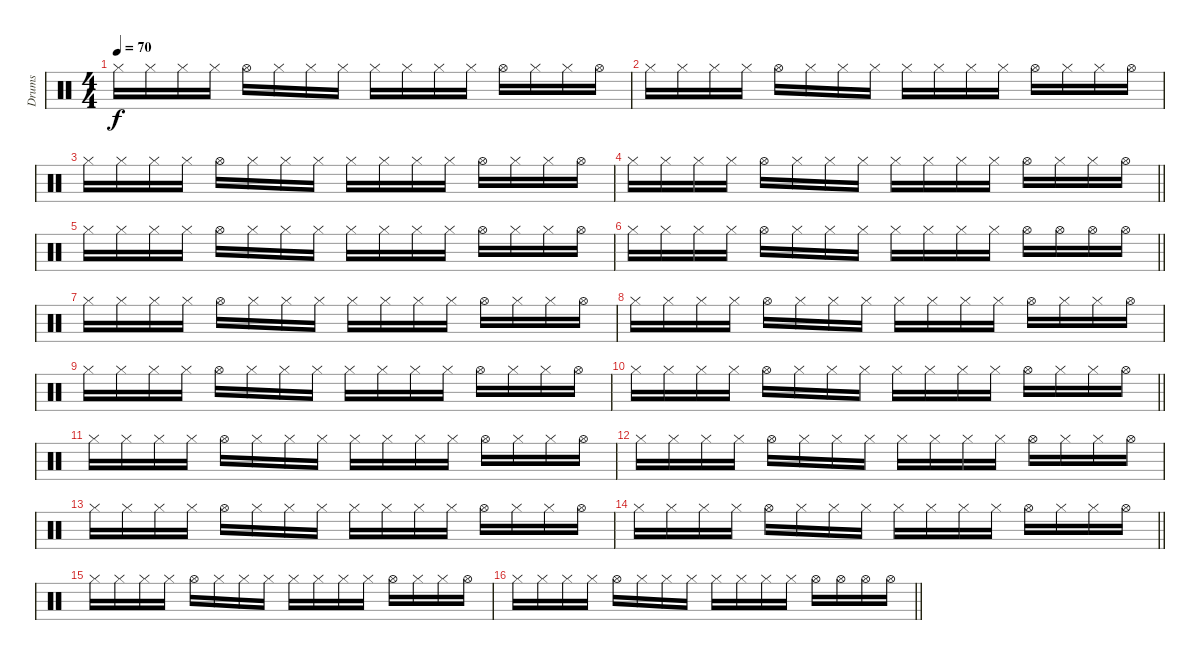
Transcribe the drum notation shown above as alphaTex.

\track ("Drums" "Drums") {instrument percussion}
\staff {score}
\articulation defaults
\ts (4 4)
\section ("" "")
\tempo 70
\clef neutral
\ks c "Hi-Hat (closed)".16{dy f} "Hi-Hat (closed)".16 "Hi-Hat (closed)".16 "Hi-Hat (closed)".16 "Hi-Hat (open)".16 "Hi-Hat (closed)".16 "Hi-Hat (closed)".16 "Hi-Hat (closed)".16 "Hi-Hat (closed)".16 "Hi-Hat (closed)".16 "Hi-Hat (closed)".16 "Hi-Hat (closed)".16 "Hi-Hat (open)".16 "Hi-Hat (closed)".16 "Hi-Hat (closed)".16 "Hi-Hat (open)".16
|
"Hi-Hat (closed)".16 "Hi-Hat (closed)".16 "Hi-Hat (closed)".16 "Hi-Hat (closed)".16 "Hi-Hat (open)".16 "Hi-Hat (closed)".16 "Hi-Hat (closed)".16 "Hi-Hat (closed)".16 "Hi-Hat (closed)".16 "Hi-Hat (closed)".16 "Hi-Hat (closed)".16 "Hi-Hat (closed)".16 "Hi-Hat (open)".16 "Hi-Hat (closed)".16 "Hi-Hat (closed)".16 "Hi-Hat (open)".16 |
"Hi-Hat (closed)".16 "Hi-Hat (closed)".16 "Hi-Hat (closed)".16 "Hi-Hat (closed)".16 "Hi-Hat (open)".16 "Hi-Hat (closed)".16 "Hi-Hat (closed)".16 "Hi-Hat (closed)".16 "Hi-Hat (closed)".16 "Hi-Hat (closed)".16 "Hi-Hat (closed)".16 "Hi-Hat (closed)".16 "Hi-Hat (open)".16 "Hi-Hat (closed)".16 "Hi-Hat (closed)".16 "Hi-Hat (open)".16 |
\barLineRight lightlight "Hi-Hat (closed)".16 "Hi-Hat (closed)".16 "Hi-Hat (closed)".16 "Hi-Hat (closed)".16 "Hi-Hat (open)".16 "Hi-Hat (closed)".16 "Hi-Hat (closed)".16 "Hi-Hat (closed)".16 "Hi-Hat (closed)".16 "Hi-Hat (closed)".16 "Hi-Hat (closed)".16 "Hi-Hat (closed)".16 "Hi-Hat (open)".16 "Hi-Hat (closed)".16 "Hi-Hat (closed)".16 "Hi-Hat (open)".16
|
"Hi-Hat (closed)".16 "Hi-Hat (closed)".16 "Hi-Hat (closed)".16 "Hi-Hat (closed)".16 "Hi-Hat (open)".16 "Hi-Hat (closed)".16 "Hi-Hat (closed)".16 "Hi-Hat (closed)".16 "Hi-Hat (closed)".16 "Hi-Hat (closed)".16 "Hi-Hat (closed)".16 "Hi-Hat (closed)".16 "Hi-Hat (open)".16 "Hi-Hat (closed)".16 "Hi-Hat (closed)".16 "Hi-Hat (open)".16 |
\barLineRight lightlight "Hi-Hat (closed)".16 "Hi-Hat (closed)".16 "Hi-Hat (closed)".16 "Hi-Hat (closed)".16 "Hi-Hat (open)".16 "Hi-Hat (closed)".16 "Hi-Hat (closed)".16 "Hi-Hat (closed)".16 "Hi-Hat (closed)".16 "Hi-Hat (closed)".16 "Hi-Hat (closed)".16 "Hi-Hat (closed)".16 "Hi-Hat (open)".16 "Hi-Hat (open)".16 "Hi-Hat (open)".16 "Hi-Hat (open)".16
|
\section ("" "")
"Hi-Hat (closed)".16 "Hi-Hat (closed)".16 "Hi-Hat (closed)".16 "Hi-Hat (closed)".16 "Hi-Hat (open)".16 "Hi-Hat (closed)".16 "Hi-Hat (closed)".16 "Hi-Hat (closed)".16 "Hi-Hat (closed)".16 "Hi-Hat (closed)".16 "Hi-Hat (closed)".16 "Hi-Hat (closed)".16 "Hi-Hat (open)".16 "Hi-Hat (closed)".16 "Hi-Hat (closed)".16 "Hi-Hat (open)".16 |
"Hi-Hat (closed)".16 "Hi-Hat (closed)".16 "Hi-Hat (closed)".16 "Hi-Hat (closed)".16 "Hi-Hat (open)".16 "Hi-Hat (closed)".16 "Hi-Hat (closed)".16 "Hi-Hat (closed)".16 "Hi-Hat (closed)".16 "Hi-Hat (closed)".16 "Hi-Hat (closed)".16 "Hi-Hat (closed)".16 "Hi-Hat (open)".16 "Hi-Hat (closed)".16 "Hi-Hat (closed)".16 "Hi-Hat (open)".16 |
"Hi-Hat (closed)".16 "Hi-Hat (closed)".16 "Hi-Hat (closed)".16 "Hi-Hat (closed)".16 "Hi-Hat (open)".16 "Hi-Hat (closed)".16 "Hi-Hat (closed)".16 "Hi-Hat (closed)".16 "Hi-Hat (closed)".16 "Hi-Hat (closed)".16 "Hi-Hat (closed)".16 "Hi-Hat (closed)".16 "Hi-Hat (open)".16 "Hi-Hat (closed)".16 "Hi-Hat (closed)".16 "Hi-Hat (open)".16 |
\barLineRight lightlight "Hi-Hat (closed)".16 "Hi-Hat (closed)".16 "Hi-Hat (closed)".16 "Hi-Hat (closed)".16 "Hi-Hat (open)".16 "Hi-Hat (closed)".16 "Hi-Hat (closed)".16 "Hi-Hat (closed)".16 "Hi-Hat (closed)".16 "Hi-Hat (closed)".16 "Hi-Hat (closed)".16 "Hi-Hat (closed)".16 "Hi-Hat (open)".16 "Hi-Hat (closed)".16 "Hi-Hat (closed)".16 "Hi-Hat (open)".16
|
"Hi-Hat (closed)".16 "Hi-Hat (closed)".16 "Hi-Hat (closed)".16 "Hi-Hat (closed)".16 "Hi-Hat (open)".16 "Hi-Hat (closed)".16 "Hi-Hat (closed)".16 "Hi-Hat (closed)".16 "Hi-Hat (closed)".16 "Hi-Hat (closed)".16 "Hi-Hat (closed)".16 "Hi-Hat (closed)".16 "Hi-Hat (open)".16 "Hi-Hat (closed)".16 "Hi-Hat (closed)".16 "Hi-Hat (open)".16 |
"Hi-Hat (closed)".16 "Hi-Hat (closed)".16 "Hi-Hat (closed)".16 "Hi-Hat (closed)".16 "Hi-Hat (open)".16 "Hi-Hat (closed)".16 "Hi-Hat (closed)".16 "Hi-Hat (closed)".16 "Hi-Hat (closed)".16 "Hi-Hat (closed)".16 "Hi-Hat (closed)".16 "Hi-Hat (closed)".16 "Hi-Hat (open)".16 "Hi-Hat (closed)".16 "Hi-Hat (closed)".16 "Hi-Hat (open)".16 |
"Hi-Hat (closed)".16 "Hi-Hat (closed)".16 "Hi-Hat (closed)".16 "Hi-Hat (closed)".16 "Hi-Hat (open)".16 "Hi-Hat (closed)".16 "Hi-Hat (closed)".16 "Hi-Hat (closed)".16 "Hi-Hat (closed)".16 "Hi-Hat (closed)".16 "Hi-Hat (closed)".16 "Hi-Hat (closed)".16 "Hi-Hat (open)".16 "Hi-Hat (closed)".16 "Hi-Hat (closed)".16 "Hi-Hat (open)".16 |
\barLineRight lightlight "Hi-Hat (closed)".16 "Hi-Hat (closed)".16 "Hi-Hat (closed)".16 "Hi-Hat (closed)".16 "Hi-Hat (open)".16 "Hi-Hat (closed)".16 "Hi-Hat (closed)".16 "Hi-Hat (closed)".16 "Hi-Hat (closed)".16 "Hi-Hat (closed)".16 "Hi-Hat (closed)".16 "Hi-Hat (closed)".16 "Hi-Hat (open)".16 "Hi-Hat (closed)".16 "Hi-Hat (closed)".16 "Hi-Hat (open)".16
|
\section ("" "")
"Hi-Hat (closed)".16 "Hi-Hat (closed)".16 "Hi-Hat (closed)".16 "Hi-Hat (closed)".16 "Hi-Hat (open)".16 "Hi-Hat (closed)".16 "Hi-Hat (closed)".16 "Hi-Hat (closed)".16 "Hi-Hat (closed)".16 "Hi-Hat (closed)".16 "Hi-Hat (closed)".16 "Hi-Hat (closed)".16 "Hi-Hat (open)".16 "Hi-Hat (closed)".16 "Hi-Hat (closed)".16 "Hi-Hat (open)".16 |
\barLineRight lightlight "Hi-Hat (closed)".16 "Hi-Hat (closed)".16 "Hi-Hat (closed)".16 "Hi-Hat (closed)".16 "Hi-Hat (open)".16 "Hi-Hat (closed)".16 "Hi-Hat (closed)".16 "Hi-Hat (closed)".16 "Hi-Hat (closed)".16 "Hi-Hat (closed)".16 "Hi-Hat (closed)".16 "Hi-Hat (closed)".16 "Hi-Hat (open)".16 "Hi-Hat (open)".16 "Hi-Hat (open)".16 "Hi-Hat (open)".16
